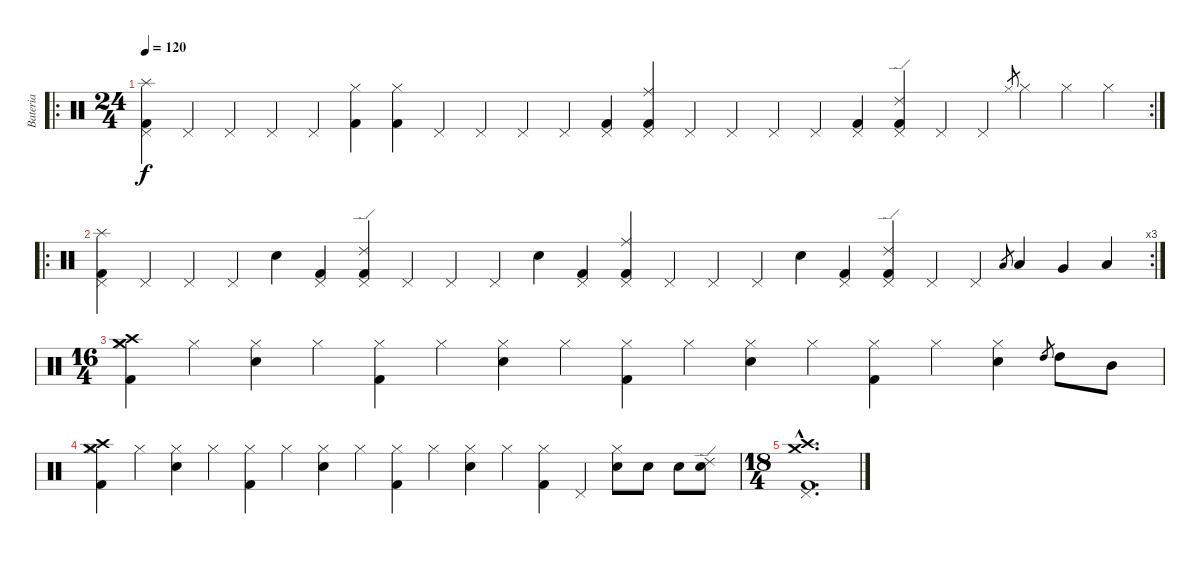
\track ("Bateria" "Bateria") {instrument percussion}
\staff {score}
\articulation defaults
\ro
\rc 2
\ts (24 4)
\tempo 120
\clef neutral
\ks c
("Splash (hit)" "Pedal Hi-Hat (hit)" "Kick (hit) 2").4{dy f} "Pedal Hi-Hat (hit)".4 "Pedal Hi-Hat (hit)".4 "Pedal Hi-Hat (hit)".4 "Pedal Hi-Hat (hit)".4 ("Hi-Hat (closed)" "Kick (hit) 2").4 ("Hi-Hat (closed)" "Kick (hit) 2").4 "Pedal Hi-Hat (hit)".4 "Pedal Hi-Hat (hit)".4 "Pedal Hi-Hat (hit)".4 "Pedal Hi-Hat (hit)".4 ("Pedal Hi-Hat (hit)" "Kick (hit) 2").4 ("Ride (middle)" "Pedal Hi-Hat (hit)" "Kick (hit) 2").4 "Pedal Hi-Hat (hit)".4 "Pedal Hi-Hat (hit)".4 "Pedal Hi-Hat (hit)".4 "Pedal Hi-Hat (hit)".4 ("Pedal Hi-Hat (hit)" "Kick (hit) 2").4 ("Ride (edge) 2" "Pedal Hi-Hat (hit)" "Kick (hit) 2").4 "Pedal Hi-Hat (hit)".4 "Pedal Hi-Hat (hit)".4 "Hi-Hat (closed)".8{gr} "Hi-Hat (closed)".4 "Hi-Hat (closed)".4 "Hi-Hat (closed)".4 |
\ro
\rc 3
("Splash (hit)" "Pedal Hi-Hat (hit)" "Kick (hit) 2").4 "Pedal Hi-Hat (hit)".4 "Pedal Hi-Hat (hit)".4 "Pedal Hi-Hat (hit)".4 "Electric Snare (hit)".4 ("Pedal Hi-Hat (hit)" "Kick (hit) 2").4 ("Ride (edge) 2" "Pedal Hi-Hat (hit)" "Kick (hit) 2").4 "Pedal Hi-Hat (hit)".4 "Pedal Hi-Hat (hit)".4 "Pedal Hi-Hat (hit)".4 "Electric Snare (hit)".4 ("Pedal Hi-Hat (hit)" "Kick (hit) 2").4 ("Ride (middle)" "Pedal Hi-Hat (hit)" "Kick (hit) 2").4 "Pedal Hi-Hat (hit)".4 "Pedal Hi-Hat (hit)".4 "Pedal Hi-Hat (hit)".4 "Electric Snare (hit)".4 ("Pedal Hi-Hat (hit)" "Kick (hit) 2").4 ("Ride (edge) 2" "Pedal Hi-Hat (hit)" "Kick (hit) 2").4 "Pedal Hi-Hat (hit)".4 "Pedal Hi-Hat (hit)".4 "Low Tom (hit)".8{gr} "Low Tom (hit)".4 "Very Low Tom (hit)".4 "Low Floor Tom (hit)".4 |
\ts (16 4)
("Crash medium (hit)" "Crash high (hit)" "Hi-Hat (closed)" "Kick (hit) 2").4 "Hi-Hat (closed)".4 ("Hi-Hat (closed)" "Electric Snare (hit)").4 "Hi-Hat (closed)".4 ("Hi-Hat (closed)" "Kick (hit) 2").4 "Hi-Hat (closed)".4 ("Hi-Hat (closed)" "Electric Snare (hit)").4 "Hi-Hat (closed)".4 ("Hi-Hat (closed)" "Kick (hit) 2").4 "Hi-Hat (closed)".4 ("Hi-Hat (closed)" "Electric Snare (hit)").4 "Hi-Hat (closed)".4 ("Hi-Hat (closed)" "Kick (hit) 2").4 "Hi-Hat (closed)".4 ("Hi-Hat (closed)" "Electric Snare (hit)").4 "High Tom (hit)".8{gr} "High Tom (hit)".8 "Mid Tom (hit)".8 |
("Crash medium (hit)" "Crash high (hit)" "Hi-Hat (closed)" "Kick (hit) 2").4 "Hi-Hat (closed)".4 ("Hi-Hat (closed)" "Electric Snare (hit)").4 "Hi-Hat (closed)".4 ("Hi-Hat (closed)" "Kick (hit) 2").4 "Hi-Hat (closed)".4 ("Hi-Hat (closed)" "Electric Snare (hit)").4 "Hi-Hat (closed)".4 ("Hi-Hat (closed)" "Kick (hit) 2").4 "Hi-Hat (closed)".4 ("Hi-Hat (closed)" "Electric Snare (hit)").4 "Hi-Hat (closed)".4 ("Hi-Hat (closed)" "Kick (hit) 2").4 "Pedal Hi-Hat (hit)".4 ("Hi-Hat (closed)" "Electric Snare (hit)").8 "Electric Snare (hit)".8 "Electric Snare (hit)".8 ("Ride (edge) 2" "Electric Snare (hit)").8 |
\ts (18 4)
("Crash medium (hit)"{hac} "Crash high (hit)"{hac} "Pedal Hi-Hat (hit)"{hac} "Kick (hit) 2"{hac}).1{d}
